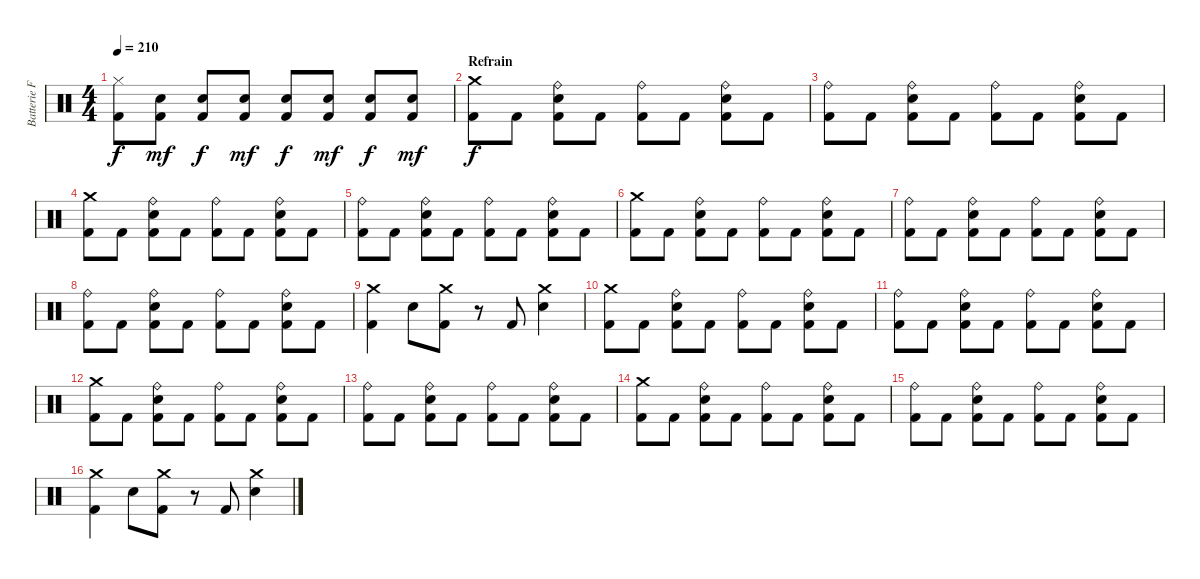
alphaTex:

\track ("Batterie Franck" "Batterie F") {instrument percussion}
\staff {score}
\articulation defaults
\ts (4 4)
\tempo 210
\clef neutral
\ks c
("Hi-Hat (closed)" "Kick (hit) 2").8{dy f} ("Snare (hit) 2" "Kick (hit) 2").8{dy mf} ("Snare (hit) 2" "Kick (hit) 2").8{dy f} ("Snare (hit) 2" "Kick (hit) 2").8{dy mf} ("Snare (hit) 2" "Kick (hit) 2").8{dy f} ("Snare (hit) 2" "Kick (hit) 2").8{dy mf} ("Snare (hit) 2" "Kick (hit) 2").8{dy f} ("Snare (hit) 2" "Kick (hit) 2").8{dy mf} |
\section ("" "Refrain")
("Crash medium (hit)" "Kick (hit) 2").8{dy f} "Kick (hit) 2".8 ("Ride (bell)" "Snare (hit) 2" "Kick (hit) 2").8 "Kick (hit) 2".8 ("Ride (bell)" "Kick (hit) 2").8 "Kick (hit) 2".8 ("Ride (bell)" "Snare (hit) 2" "Kick (hit) 2").8 "Kick (hit) 2".8 |
("Ride (bell)" "Kick (hit) 2").8 "Kick (hit) 2".8 ("Ride (bell)" "Snare (hit) 2" "Kick (hit) 2").8 "Kick (hit) 2".8 ("Ride (bell)" "Kick (hit) 2").8 "Kick (hit) 2".8 ("Ride (bell)" "Snare (hit) 2" "Kick (hit) 2").8 "Kick (hit) 2".8 |
("Crash medium (hit)" "Kick (hit) 2").8 "Kick (hit) 2".8 ("Ride (bell)" "Snare (hit) 2" "Kick (hit) 2").8 "Kick (hit) 2".8 ("Ride (bell)" "Kick (hit) 2").8 "Kick (hit) 2".8 ("Ride (bell)" "Snare (hit) 2" "Kick (hit) 2").8 "Kick (hit) 2".8 |
("Ride (bell)" "Kick (hit) 2").8 "Kick (hit) 2".8 ("Ride (bell)" "Snare (hit) 2" "Kick (hit) 2").8 "Kick (hit) 2".8 ("Ride (bell)" "Kick (hit) 2").8 "Kick (hit) 2".8 ("Ride (bell)" "Snare (hit) 2" "Kick (hit) 2").8 "Kick (hit) 2".8 |
("Crash medium (hit)" "Kick (hit) 2").8 "Kick (hit) 2".8 ("Ride (bell)" "Snare (hit) 2" "Kick (hit) 2").8 "Kick (hit) 2".8 ("Ride (bell)" "Kick (hit) 2").8 "Kick (hit) 2".8 ("Ride (bell)" "Snare (hit) 2" "Kick (hit) 2").8 "Kick (hit) 2".8 |
("Ride (bell)" "Kick (hit) 2").8 "Kick (hit) 2".8 ("Ride (bell)" "Snare (hit) 2" "Kick (hit) 2").8 "Kick (hit) 2".8 ("Ride (bell)" "Kick (hit) 2").8 "Kick (hit) 2".8 ("Ride (bell)" "Snare (hit) 2" "Kick (hit) 2").8 "Kick (hit) 2".8 |
("Ride (bell)" "Kick (hit) 2").8 "Kick (hit) 2".8 ("Ride (bell)" "Snare (hit) 2" "Kick (hit) 2").8 "Kick (hit) 2".8 ("Ride (bell)" "Kick (hit) 2").8 "Kick (hit) 2".8 ("Ride (bell)" "Snare (hit) 2" "Kick (hit) 2").8 "Kick (hit) 2".8 |
("Crash medium (hit)" "Kick (hit) 2").4 "Snare (hit) 2".8 ("Crash medium (hit)" "Kick (hit) 2").8 r.8 "Kick (hit) 2".8 ("Crash medium (hit)" "Snare (hit) 2").4 |
("Crash medium (hit)" "Kick (hit) 2").8 "Kick (hit) 2".8 ("Ride (bell)" "Snare (hit) 2" "Kick (hit) 2").8 "Kick (hit) 2".8 ("Ride (bell)" "Kick (hit) 2").8 "Kick (hit) 2".8 ("Ride (bell)" "Snare (hit) 2" "Kick (hit) 2").8 "Kick (hit) 2".8 |
("Ride (bell)" "Kick (hit) 2").8 "Kick (hit) 2".8 ("Ride (bell)" "Snare (hit) 2" "Kick (hit) 2").8 "Kick (hit) 2".8 ("Ride (bell)" "Kick (hit) 2").8 "Kick (hit) 2".8 ("Ride (bell)" "Snare (hit) 2" "Kick (hit) 2").8 "Kick (hit) 2".8 |
("Crash medium (hit)" "Kick (hit) 2").8 "Kick (hit) 2".8 ("Ride (bell)" "Snare (hit) 2" "Kick (hit) 2").8 "Kick (hit) 2".8 ("Ride (bell)" "Kick (hit) 2").8 "Kick (hit) 2".8 ("Ride (bell)" "Snare (hit) 2" "Kick (hit) 2").8 "Kick (hit) 2".8 |
("Ride (bell)" "Kick (hit) 2").8 "Kick (hit) 2".8 ("Ride (bell)" "Snare (hit) 2" "Kick (hit) 2").8 "Kick (hit) 2".8 ("Ride (bell)" "Kick (hit) 2").8 "Kick (hit) 2".8 ("Ride (bell)" "Snare (hit) 2" "Kick (hit) 2").8 "Kick (hit) 2".8 |
("Crash medium (hit)" "Kick (hit) 2").8 "Kick (hit) 2".8 ("Ride (bell)" "Snare (hit) 2" "Kick (hit) 2").8 "Kick (hit) 2".8 ("Ride (bell)" "Kick (hit) 2").8 "Kick (hit) 2".8 ("Ride (bell)" "Snare (hit) 2" "Kick (hit) 2").8 "Kick (hit) 2".8 |
("Ride (bell)" "Kick (hit) 2").8 "Kick (hit) 2".8 ("Ride (bell)" "Snare (hit) 2" "Kick (hit) 2").8 "Kick (hit) 2".8 ("Ride (bell)" "Kick (hit) 2").8 "Kick (hit) 2".8 ("Ride (bell)" "Snare (hit) 2" "Kick (hit) 2").8 "Kick (hit) 2".8 |
("Crash medium (hit)" "Kick (hit) 2").4 "Snare (hit) 2".8 ("Crash medium (hit)" "Kick (hit) 2").8 r.8 "Kick (hit) 2".8 ("Crash medium (hit)" "Snare (hit) 2").4
